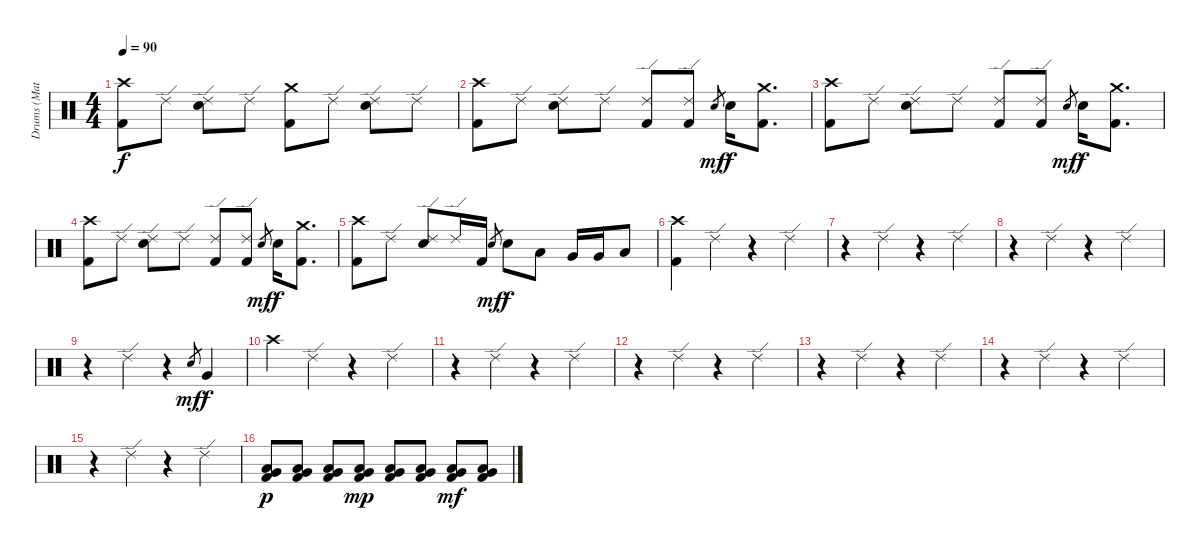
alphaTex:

\track ("Drums (Matt)" "Drums (Mat") {instrument percussion}
\staff {score}
\articulation defaults
\ts (4 4)
\tempo 90
\clef neutral
\ks c
("Crash high (hit)" "Kick (hit) 2").8{dy f} "Ride (edge) 2".8 ("Ride (edge) 2" "Snare (hit) 2").8 "Ride (edge) 2".8 ("Crash medium (hit)" "Kick (hit) 2").8 "Ride (edge) 2".8 ("Ride (edge) 2" "Snare (hit) 2").8 "Ride (edge) 2".8 |
("Crash high (hit)" "Kick (hit) 2").8 "Ride (edge) 2".8 ("Ride (edge) 2" "Snare (hit) 2").8 "Ride (edge) 2".8 ("Ride (edge) 2" "Kick (hit) 2").8 ("Ride (edge) 2" "Kick (hit) 2").8 "Snare (hit)".8{gr dy mf} "Snare (hit) 2".16{dy f} ("Crash medium (hit)" "Kick (hit) 2").8{d} |
("Crash high (hit)" "Kick (hit) 2").8 "Ride (edge) 2".8 ("Ride (edge) 2" "Snare (hit) 2").8 "Ride (edge) 2".8 ("Ride (edge) 2" "Kick (hit) 2").8 ("Ride (edge) 2" "Kick (hit) 2").8 "Snare (hit)".8{gr dy mf} "Snare (hit) 2".16{dy f} ("Crash medium (hit)" "Kick (hit) 2").8{d} |
("Crash high (hit)" "Kick (hit) 2").8 "Ride (edge) 2".8 ("Ride (edge) 2" "Snare (hit) 2").8 "Ride (edge) 2".8 ("Ride (edge) 2" "Kick (hit) 2").8 ("Ride (edge) 2" "Kick (hit) 2").8 "Snare (hit)".8{gr dy mf} "Snare (hit) 2".16{dy f} ("Crash medium (hit)" "Kick (hit) 2").8{d} |
("Crash high (hit)" "Kick (hit) 2").8 "Ride (edge) 2".8 ("Ride (edge) 2" "Snare (hit) 2").8 "Ride (edge) 2".16 "Kick (hit) 2".16 "Snare (hit)".8{gr dy mf} "Snare (hit) 2".8{dy f} "Low Tom (hit)".8 "Very Low Tom (hit)".16 "Very Low Tom (hit)".16 "Low Floor Tom (hit)".8 |
("Crash high (hit)" "Kick (hit) 2").4 "Ride (edge) 2".4 r.4 "Ride (edge) 2".4 |
r.4 "Ride (edge) 2".4 r.4 "Ride (edge) 2".4 |
r.4 "Ride (edge) 2".4 r.4 "Ride (edge) 2".4 |
r.4 "Ride (edge) 2".4 r.4 "Snare (hit)".8{gr dy mf} "Very Low Tom (hit)".4{dy f} |
"Crash high (hit)".4 "Ride (edge) 2".4 r.4 "Ride (edge) 2".4 |
r.4 "Ride (edge) 2".4 r.4 "Ride (edge) 2".4 |
r.4 "Ride (edge) 2".4 r.4 "Ride (edge) 2".4 |
r.4 "Ride (edge) 2".4 r.4 "Ride (edge) 2".4 |
r.4 "Ride (edge) 2".4 r.4 "Ride (edge) 2".4 |
r.4 "Ride (edge) 2".4 r.4 "Ride (edge) 2".4 |
("Low Tom (hit)" "Very Low Tom (hit)" "Kick (hit) 2").8{dy p} ("Low Tom (hit)" "Very Low Tom (hit)" "Kick (hit) 2").8 ("Low Tom (hit)" "Very Low Tom (hit)" "Kick (hit) 2").8 ("Low Tom (hit)" "Very Low Tom (hit)" "Kick (hit) 2").8{dy mp} ("Low Tom (hit)" "Very Low Tom (hit)" "Kick (hit) 2").8 ("Low Tom (hit)" "Very Low Tom (hit)" "Kick (hit) 2").8 ("Low Tom (hit)" "Very Low Tom (hit)" "Kick (hit) 2").8{dy mf} ("Low Tom (hit)" "Very Low Tom (hit)" "Kick (hit) 2").8
